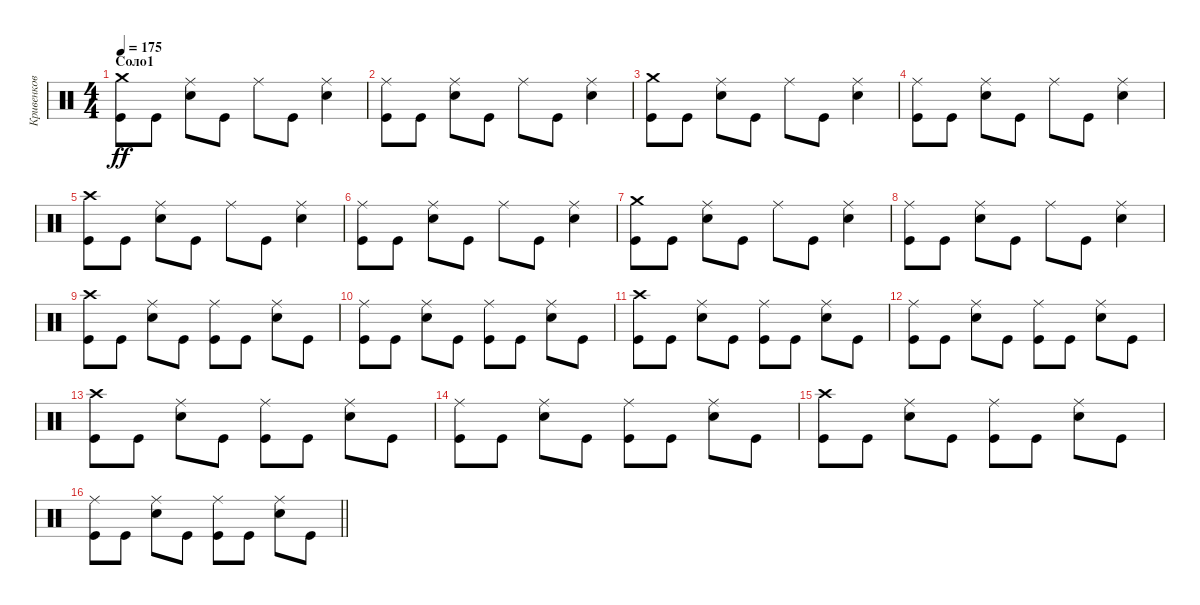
\track ("Кривенков" "Кривенков") {instrument percussion}
\staff {score}
\articulation defaults
\ts (4 4)
\section ("" "Соло1")
\tempo 175
\clef neutral
\ks c
("Crash medium (hit)" "Kick (hit)").8{dy ff} "Kick (hit)".8 ("Ride (middle)" "Snare (hit) 2").8 "Kick (hit)".8 "Ride (middle)".8 "Kick (hit)".8 ("Ride (middle)" "Snare (hit) 2").4 |
("Kick (hit)" "Ride (middle)").8 "Kick (hit)".8 ("Snare (hit) 2" "Ride (middle)").8 "Kick (hit)".8 "Ride (middle)".8 "Kick (hit)".8 ("Snare (hit) 2" "Ride (middle)").4 |
("Crash medium (hit)" "Kick (hit)").8 "Kick (hit)".8 ("Ride (middle)" "Snare (hit) 2").8 "Kick (hit)".8 "Ride (middle)".8 "Kick (hit)".8 ("Ride (middle)" "Snare (hit) 2").4 |
("Kick (hit)" "Ride (middle)").8 "Kick (hit)".8 ("Snare (hit) 2" "Ride (middle)").8 "Kick (hit)".8 "Ride (middle)".8 "Kick (hit)".8 ("Snare (hit) 2" "Ride (middle)").4 |
("Crash high (hit)" "Kick (hit)").8 "Kick (hit)".8 ("Ride (middle)" "Snare (hit) 2").8 "Kick (hit)".8 "Ride (middle)".8 "Kick (hit)".8 ("Ride (middle)" "Snare (hit) 2").4 |
("Kick (hit)" "Ride (middle)").8 "Kick (hit)".8 ("Snare (hit) 2" "Ride (middle)").8 "Kick (hit)".8 "Ride (middle)".8 "Kick (hit)".8 ("Snare (hit) 2" "Ride (middle)").4 |
("Crash medium (hit)" "Kick (hit)").8 "Kick (hit)".8 ("Ride (middle)" "Snare (hit) 2").8 "Kick (hit)".8 "Ride (middle)".8 "Kick (hit)".8 ("Ride (middle)" "Snare (hit) 2").4 |
("Kick (hit)" "Ride (middle)").8 "Kick (hit)".8 ("Snare (hit) 2" "Ride (middle)").8 "Kick (hit)".8 "Ride (middle)".8 "Kick (hit)".8 ("Snare (hit) 2" "Ride (middle)").4 |
("Crash high (hit)" "Kick (hit)").8 "Kick (hit)".8 ("Snare (hit) 2" "Ride (middle)").8 "Kick (hit)".8 ("Ride (middle)" "Kick (hit)").8 "Kick (hit)".8 ("Ride (middle)" "Snare (hit) 2").8 "Kick (hit)".8 |
("Kick (hit)" "Ride (middle)").8 "Kick (hit)".8 ("Snare (hit) 2" "Ride (middle)").8 "Kick (hit)".8 ("Kick (hit)" "Ride (middle)").8 "Kick (hit)".8 ("Snare (hit) 2" "Ride (middle)").8 "Kick (hit)".8 |
("Crash high (hit)" "Kick (hit)").8 "Kick (hit)".8 ("Snare (hit) 2" "Ride (middle)").8 "Kick (hit)".8 ("Ride (middle)" "Kick (hit)").8 "Kick (hit)".8 ("Ride (middle)" "Snare (hit) 2").8 "Kick (hit)".8 |
("Kick (hit)" "Ride (middle)").8 "Kick (hit)".8 ("Snare (hit) 2" "Ride (middle)").8 "Kick (hit)".8 ("Kick (hit)" "Ride (middle)").8 "Kick (hit)".8 ("Snare (hit) 2" "Ride (middle)").8 "Kick (hit)".8 |
("Crash high (hit)" "Kick (hit)").8 "Kick (hit)".8 ("Snare (hit) 2" "Ride (middle)").8 "Kick (hit)".8 ("Ride (middle)" "Kick (hit)").8 "Kick (hit)".8 ("Ride (middle)" "Snare (hit) 2").8 "Kick (hit)".8 |
("Kick (hit)" "Ride (middle)").8 "Kick (hit)".8 ("Snare (hit) 2" "Ride (middle)").8 "Kick (hit)".8 ("Kick (hit)" "Ride (middle)").8 "Kick (hit)".8 ("Snare (hit) 2" "Ride (middle)").8 "Kick (hit)".8 |
("Crash high (hit)" "Kick (hit)").8 "Kick (hit)".8 ("Snare (hit) 2" "Ride (middle)").8 "Kick (hit)".8 ("Ride (middle)" "Kick (hit)").8 "Kick (hit)".8 ("Ride (middle)" "Snare (hit) 2").8 "Kick (hit)".8 |
\barLineRight lightlight
("Kick (hit)" "Ride (middle)").8 "Kick (hit)".8 ("Snare (hit) 2" "Ride (middle)").8 "Kick (hit)".8 ("Kick (hit)" "Ride (middle)").8 "Kick (hit)".8 ("Snare (hit) 2" "Ride (middle)").8 "Kick (hit)".8
